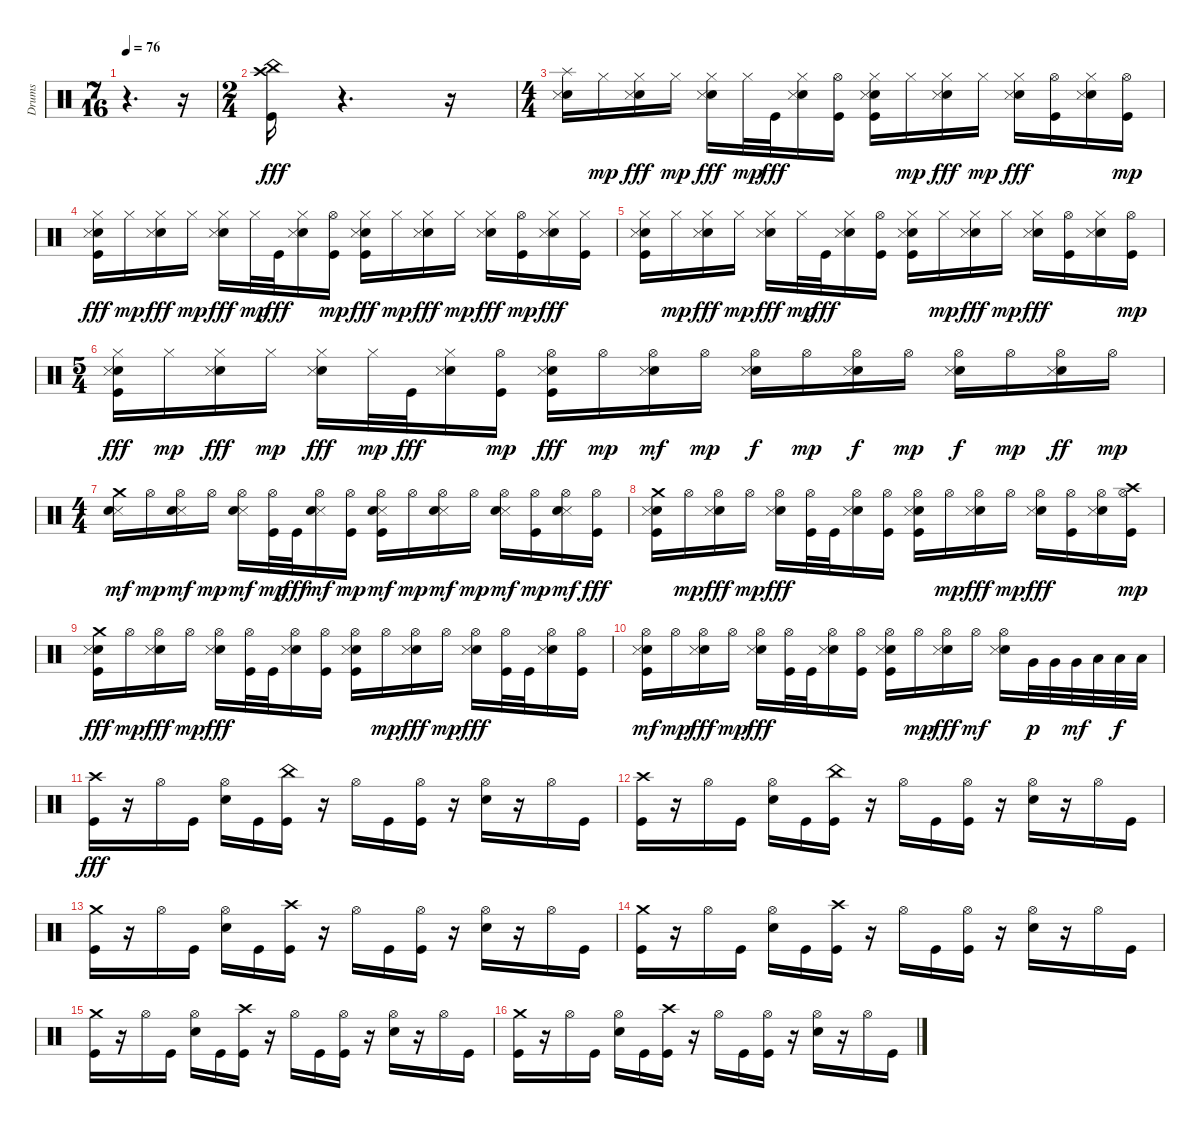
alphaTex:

\track ("Drums" "Drums") {instrument percussion}
\staff {score}
\articulation defaults
\ts (7 16)
\tempo 76
\clef neutral
\ks c
r.4{d dy fff} r.16 |
\ts (2 4)
("China (hit)" "Crash high (hit)" "Kick (hit)").16{volume 16} r.4{d} r.16 |
\ts (4 4)
("Snare (hit) 2" "Snare (side stick) 3" "Splash (hit)").16 "Hi-Hat (closed)".16{dy mp} ("Snare (hit) 2" "Snare (side stick) 3" "Hi-Hat (closed)").16{dy fff} "Hi-Hat (closed)".16{dy mp} ("Snare (hit) 2" "Snare (side stick) 3" "Hi-Hat (closed)").16{dy fff} "Hi-Hat (closed)".32{dy mp} "Kick (hit)".32{dy fff} ("Snare (hit) 2" "Snare (side stick) 3" "Hi-Hat (closed)").16 ("Hi-Hat (open)" "Kick (hit)").16 ("Snare (hit) 2" "Snare (side stick) 3" "Kick (hit)" "Hi-Hat (closed)").16 "Hi-Hat (closed)".16{dy mp} ("Snare (hit) 2" "Snare (side stick) 3" "Hi-Hat (closed)").16{dy fff} "Hi-Hat (closed)".16{dy mp} ("Snare (hit) 2" "Snare (side stick) 3" "Hi-Hat (closed)").16{dy fff} ("Hi-Hat (open)" "Kick (hit)").16 ("Snare (hit) 2" "Snare (side stick) 3" "Hi-Hat (closed)").16 ("Kick (hit)" "Hi-Hat (open)").16{dy mp} |
("Snare (hit) 2" "Snare (side stick) 3" "Hi-Hat (closed)" "Kick (hit)").16{dy fff} "Hi-Hat (closed)".16{dy mp} ("Snare (hit) 2" "Snare (side stick) 3" "Hi-Hat (closed)").16{dy fff} "Hi-Hat (closed)".16{dy mp} ("Snare (hit) 2" "Snare (side stick) 3" "Hi-Hat (closed)").16{dy fff} "Hi-Hat (closed)".32{dy mp} "Kick (hit)".32{dy fff} ("Snare (hit) 2" "Snare (side stick) 3" "Hi-Hat (closed)").16 ("Kick (hit)" "Hi-Hat (open)").16{dy mp} ("Snare (hit) 2" "Snare (side stick) 3" "Hi-Hat (closed)" "Kick (hit)").16{dy fff} "Hi-Hat (closed)".16{dy mp} ("Snare (hit) 2" "Snare (side stick) 3" "Hi-Hat (closed)").16{dy fff} "Hi-Hat (closed)".16{dy mp} ("Snare (hit) 2" "Snare (side stick) 3" "Hi-Hat (closed)").16{dy fff} ("Kick (hit)" "Hi-Hat (open)").16{dy mp} ("Snare (hit) 2" "Snare (side stick) 3" "Hi-Hat (closed)").16{dy fff} ("Hi-Hat (closed)" "Kick (hit)").16 |
("Snare (hit) 2" "Snare (side stick) 3" "Kick (hit)" "Hi-Hat (closed)").16 "Hi-Hat (closed)".16{dy mp} ("Snare (hit) 2" "Snare (side stick) 3" "Hi-Hat (closed)").16{dy fff} "Hi-Hat (closed)".16{dy mp} ("Snare (hit) 2" "Snare (side stick) 3" "Hi-Hat (closed)").16{dy fff} "Hi-Hat (closed)".32{dy mp} "Kick (hit)".32{dy fff} ("Snare (hit) 2" "Snare (side stick) 3" "Hi-Hat (closed)").16 ("Hi-Hat (open)" "Kick (hit)").16 ("Snare (hit) 2" "Snare (side stick) 3" "Kick (hit)" "Hi-Hat (closed)").16 "Hi-Hat (closed)".16{dy mp} ("Snare (hit) 2" "Snare (side stick) 3" "Hi-Hat (closed)").16{dy fff} "Hi-Hat (closed)".16{dy mp} ("Snare (hit) 2" "Snare (side stick) 3" "Hi-Hat (closed)").16{dy fff} ("Hi-Hat (open)" "Kick (hit)").16 ("Snare (hit) 2" "Snare (side stick) 3" "Hi-Hat (closed)").16 ("Kick (hit)" "Hi-Hat (open)").16{dy mp} |
\ts (5 4)
("Snare (hit) 2" "Snare (side stick) 3" "Hi-Hat (closed)" "Kick (hit)").16{dy fff} "Hi-Hat (closed)".16{dy mp} ("Snare (hit) 2" "Snare (side stick) 3" "Hi-Hat (closed)").16{dy fff} "Hi-Hat (closed)".16{dy mp} ("Snare (hit) 2" "Snare (side stick) 3" "Hi-Hat (closed)").16{dy fff} "Hi-Hat (closed)".32{dy mp} "Kick (hit)".32{dy fff} ("Snare (hit) 2" "Snare (side stick) 3" "Hi-Hat (closed)").16 ("Kick (hit)" "Hi-Hat (open)").16{dy mp} ("Snare (hit) 2" "Snare (side stick) 3" "Hi-Hat (open)" "Kick (hit)").16{dy fff} "Hi-Hat (open)".16{dy mp} ("Snare (hit) 2" "Snare (side stick) 3" "Hi-Hat (open)").16{dy mf} "Hi-Hat (open)".16{dy mp} ("Snare (hit) 2" "Snare (side stick) 3" "Hi-Hat (open)").16{dy f} "Hi-Hat (open)".16{dy mp} ("Snare (hit) 2" "Snare (side stick) 3" "Hi-Hat (open)").16{dy f} "Hi-Hat (open)".16{dy mp} ("Snare (hit) 2" "Snare (side stick) 3" "Hi-Hat (open)").16{dy f} "Hi-Hat (open)".16{dy mp} ("Snare (hit) 2" "Snare (side stick) 3" "Hi-Hat (open)").16{dy ff} "Hi-Hat (open)".16{dy mp} |
\ts (4 4)
("Crash medium (hit)" "Snare (side stick) 3" "Snare (hit) 2").16{dy mf} "Hi-Hat (open)".16{dy mp} ("Hi-Hat (open)" "Snare (side stick) 3" "Snare (hit) 2").16{dy mf} "Hi-Hat (open)".16{dy mp} ("Hi-Hat (open)" "Snare (side stick) 3" "Snare (hit) 2").16{dy mf} ("Kick (hit)" "Hi-Hat (open)").32{dy mp} "Kick (hit)".32{dy fff} ("Hi-Hat (open)" "Snare (side stick) 3" "Snare (hit) 2").16{dy mf} ("Kick (hit)" "Hi-Hat (open)").16{dy mp} ("Hi-Hat (open)" "Kick (hit)" "Snare (side stick) 3" "Snare (hit) 2").16{dy mf} "Hi-Hat (open)".16{dy mp} ("Hi-Hat (open)" "Snare (side stick) 3" "Snare (hit) 2").16{dy mf} "Hi-Hat (open)".16{dy mp} ("Hi-Hat (open)" "Snare (side stick) 3" "Snare (hit) 2").16{dy mf} ("Kick (hit)" "Hi-Hat (open)").16{dy mp} ("Hi-Hat (open)" "Snare (side stick) 3" "Snare (hit) 2").16{dy mf} ("Hi-Hat (open)" "Kick (hit)").16{dy fff} |
("Kick (hit)" "Snare (hit) 2" "Snare (side stick) 3" "Crash medium (hit)").16 "Hi-Hat (open)".16{dy mp} ("Snare (hit) 2" "Snare (side stick) 3" "Hi-Hat (open)").16{dy fff} "Hi-Hat (open)".16{dy mp} ("Snare (hit) 2" "Snare (side stick) 3" "Hi-Hat (open)").16{dy fff} ("Hi-Hat (open)" "Kick (hit)").32 "Kick (hit)".32 ("Snare (hit) 2" "Snare (side stick) 3" "Hi-Hat (open)").16 ("Hi-Hat (open)" "Kick (hit)").16 ("Snare (hit) 2" "Snare (side stick) 3" "Kick (hit)" "Hi-Hat (open)").16 "Hi-Hat (open)".16{dy mp} ("Snare (hit) 2" "Snare (side stick) 3" "Hi-Hat (open)").16{dy fff} "Hi-Hat (open)".16{dy mp} ("Snare (hit) 2" "Snare (side stick) 3" "Hi-Hat (open)").16{dy fff} ("Hi-Hat (open)" "Kick (hit)").16 ("Snare (hit) 2" "Snare (side stick) 3" "Hi-Hat (open)").16 ("Crash high (hit)" "Kick (hit)" "Hi-Hat (open)").16{dy mp} |
("Snare (hit) 2" "Snare (side stick) 3" "Crash medium (hit)" "Kick (hit)").16{dy fff} "Hi-Hat (open)".16{dy mp} ("Snare (hit) 2" "Snare (side stick) 3" "Hi-Hat (open)").16{dy fff} "Hi-Hat (open)".16{dy mp} ("Snare (hit) 2" "Snare (side stick) 3" "Hi-Hat (open)").16{dy fff} ("Hi-Hat (open)" "Kick (hit)").32 "Kick (hit)".32 ("Snare (hit) 2" "Snare (side stick) 3" "Hi-Hat (open)").16 ("Hi-Hat (open)" "Kick (hit)").16 ("Snare (hit) 2" "Snare (side stick) 3" "Kick (hit)" "Hi-Hat (open)").16 "Hi-Hat (open)".16{dy mp} ("Snare (hit) 2" "Snare (side stick) 3" "Hi-Hat (open)").16{dy fff} "Hi-Hat (open)".16{dy mp} ("Snare (hit) 2" "Snare (side stick) 3" "Hi-Hat (open)").16{dy fff} ("Hi-Hat (open)" "Kick (hit)").32 "Kick (hit)".32 ("Snare (hit) 2" "Snare (side stick) 3" "Hi-Hat (open)").16 ("Hi-Hat (open)" "Kick (hit)").16 |
("Hi-Hat (open)" "Kick (hit)" "Snare (hit) 2" "Snare (side stick) 3").16{dy mf} "Hi-Hat (open)".16{dy mp} ("Snare (hit) 2" "Snare (side stick) 3" "Hi-Hat (open)").16{dy fff} "Hi-Hat (open)".16{dy mp} ("Snare (hit) 2" "Snare (side stick) 3" "Hi-Hat (open)").16{dy fff} ("Hi-Hat (open)" "Kick (hit)").32 "Kick (hit)".32 ("Snare (hit) 2" "Snare (side stick) 3" "Hi-Hat (open)").16 ("Hi-Hat (open)" "Kick (hit)").16 ("Snare (hit) 2" "Snare (side stick) 3" "Kick (hit)" "Hi-Hat (open)").16 "Hi-Hat (open)".16{dy mp} ("Snare (hit) 2" "Snare (side stick) 3" "Hi-Hat (open)").16{dy fff} "Hi-Hat (open)".16{dy mf} ("Hi-Hat (open)" "Snare (hit) 2" "Snare (side stick) 3").16 "Very Low Tom (hit)".32{dy p} "Very Low Tom (hit)".32 "Very Low Tom (hit)".32{dy mf} "Low Floor Tom (hit)".32 "Low Floor Tom (hit)".32{dy f} "Low Floor Tom (hit)".32 |
("Crash high (hit)" "Kick (hit)").16{dy fff} r.16 "Hi-Hat (open)".16 "Kick (hit)".16 ("Electric Snare (hit)" "Hi-Hat (open)").16 "Kick (hit)".16 ("China (hit)" "Kick (hit)").16 r.16 "Hi-Hat (open)".16 "Kick (hit)".16 ("Kick (hit)" "Hi-Hat (open)").16 r.16 ("Electric Snare (hit)" "Hi-Hat (open)").16 r.16 "Hi-Hat (open)".16 "Kick (hit)".16 |
("Kick (hit)" "Crash high (hit)").16 r.16 "Hi-Hat (open)".16 "Kick (hit)".16 ("Hi-Hat (open)" "Electric Snare (hit)").16 "Kick (hit)".16 ("China (hit)" "Kick (hit)").16 r.16 "Hi-Hat (open)".16 "Kick (hit)".16 ("Hi-Hat (open)" "Kick (hit)").16 r.16 ("Hi-Hat (open)" "Electric Snare (hit)").16 r.16 "Hi-Hat (open)".16 "Kick (hit)".16 |
("Crash medium (hit)" "Kick (hit)").16 r.16 "Hi-Hat (open)".16 "Kick (hit)".16 ("Hi-Hat (open)" "Electric Snare (hit)").16 "Kick (hit)".16 ("Crash high (hit)" "Kick (hit)").16 r.16 "Hi-Hat (open)".16 "Kick (hit)".16 ("Hi-Hat (open)" "Kick (hit)").16 r.16 ("Hi-Hat (open)" "Electric Snare (hit)").16 r.16 "Hi-Hat (open)".16 "Kick (hit)".16 |
("Kick (hit)" "Crash medium (hit)").16 r.16 "Hi-Hat (open)".16 "Kick (hit)".16 ("Electric Snare (hit)" "Hi-Hat (open)").16 "Kick (hit)".16 ("Crash high (hit)" "Kick (hit)").16 r.16 "Hi-Hat (open)".16 "Kick (hit)".16 ("Kick (hit)" "Hi-Hat (open)").16 r.16 ("Electric Snare (hit)" "Hi-Hat (open)").16 r.16 "Hi-Hat (open)".16 "Kick (hit)".16 |
("Kick (hit)" "Crash medium (hit)").16 r.16 "Hi-Hat (open)".16 "Kick (hit)".16 ("Electric Snare (hit)" "Hi-Hat (open)").16 "Kick (hit)".16 ("Kick (hit)" "Crash high (hit)").16 r.16 "Hi-Hat (open)".16 "Kick (hit)".16 ("Kick (hit)" "Hi-Hat (open)").16 r.16 ("Electric Snare (hit)" "Hi-Hat (open)").16 r.16 "Hi-Hat (open)".16 "Kick (hit)".16 |
("Crash medium (hit)" "Kick (hit)").16 r.16 "Hi-Hat (open)".16 "Kick (hit)".16 ("Hi-Hat (open)" "Electric Snare (hit)").16 "Kick (hit)".16 ("Kick (hit)" "Crash high (hit)").16 r.16 "Hi-Hat (open)".16 "Kick (hit)".16 ("Hi-Hat (open)" "Kick (hit)").16 r.16 ("Hi-Hat (open)" "Electric Snare (hit)").16 r.16 "Hi-Hat (open)".16 "Kick (hit)".16
